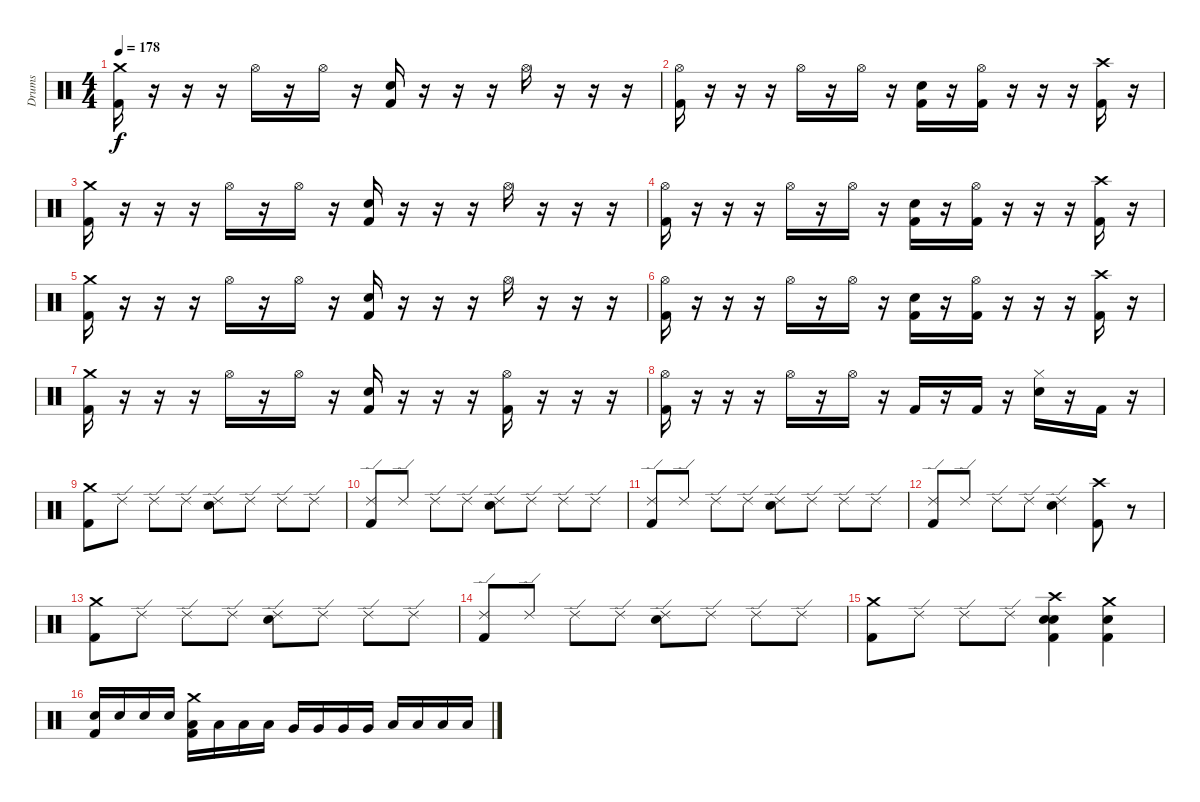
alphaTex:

\track ("Drums" "Drums") {instrument percussion}
\staff {score}
\articulation defaults
\ts (4 4)
\tempo 178
\clef neutral
\ks c
("Crash medium (hit)" "Kick (hit) 2").16{dy f} r.16 r.16 r.16 "Hi-Hat (open)".16 r.16 "Hi-Hat (open)".16 r.16 ("Electric Snare (hit)" "Kick (hit) 2").16 r.16 r.16 r.16 "Hi-Hat (open)".16 r.16 r.16 r.16 |
("Hi-Hat (open)" "Kick (hit) 2").16 r.16 r.16 r.16 "Hi-Hat (open)".16 r.16 "Hi-Hat (open)".16 r.16 ("Electric Snare (hit)" "Kick (hit) 2").16 r.16 ("Hi-Hat (open)" "Kick (hit) 2").16 r.16 r.16 r.16 ("Crash high (hit)" "Kick (hit) 2").16 r.16 |
("Crash medium (hit)" "Kick (hit) 2").16 r.16 r.16 r.16 "Hi-Hat (open)".16 r.16 "Hi-Hat (open)".16 r.16 ("Electric Snare (hit)" "Kick (hit) 2").16 r.16 r.16 r.16 "Hi-Hat (open)".16 r.16 r.16 r.16 |
("Hi-Hat (open)" "Kick (hit) 2").16 r.16 r.16 r.16 "Hi-Hat (open)".16 r.16 "Hi-Hat (open)".16 r.16 ("Electric Snare (hit)" "Kick (hit) 2").16 r.16 ("Hi-Hat (open)" "Kick (hit) 2").16 r.16 r.16 r.16 ("Crash high (hit)" "Kick (hit) 2").16 r.16 |
("Crash medium (hit)" "Kick (hit) 2").16 r.16 r.16 r.16 "Hi-Hat (open)".16 r.16 "Hi-Hat (open)".16 r.16 ("Electric Snare (hit)" "Kick (hit) 2").16 r.16 r.16 r.16 "Hi-Hat (open)".16 r.16 r.16 r.16 |
("Hi-Hat (open)" "Kick (hit) 2").16 r.16 r.16 r.16 "Hi-Hat (open)".16 r.16 "Hi-Hat (open)".16 r.16 ("Electric Snare (hit)" "Kick (hit) 2").16 r.16 ("Hi-Hat (open)" "Kick (hit) 2").16 r.16 r.16 r.16 ("Crash high (hit)" "Kick (hit) 2").16 r.16 |
("Crash medium (hit)" "Kick (hit) 2").16 r.16 r.16 r.16 "Hi-Hat (open)".16 r.16 "Hi-Hat (open)".16 r.16 ("Electric Snare (hit)" "Kick (hit) 2").16 r.16 r.16 r.16 ("Hi-Hat (open)" "Kick (hit) 2").16 r.16 r.16 r.16 |
("Hi-Hat (open)" "Kick (hit) 2").16 r.16 r.16 r.16 "Hi-Hat (open)".16 r.16 "Hi-Hat (open)".16 r.16 "Kick (hit) 2".16 r.16 "Kick (hit) 2".16 r.16 ("Hi-Hat (closed)" "Electric Snare (hit)").16 r.16 "Kick (hit) 2".16 r.16 |
("Crash medium (hit)" "Kick (hit) 2").8 "Ride (edge) 2".8 "Ride (edge) 2".8 "Ride (edge) 2".8 ("Ride (edge) 2" "Electric Snare (hit)").8 "Ride (edge) 2".8 "Ride (edge) 2".8 "Ride (edge) 2".8 |
("Ride (edge) 2" "Kick (hit) 2").8 "Ride (edge) 2".8 "Ride (edge) 2".8 "Ride (edge) 2".8 ("Ride (edge) 2" "Electric Snare (hit)").8 "Ride (edge) 2".8 "Ride (edge) 2".8 "Ride (edge) 2".8 |
("Ride (edge) 2" "Kick (hit) 2").8 "Ride (edge) 2".8 "Ride (edge) 2".8 "Ride (edge) 2".8 ("Ride (edge) 2" "Electric Snare (hit)").8 "Ride (edge) 2".8 "Ride (edge) 2".8 "Ride (edge) 2".8 |
("Ride (edge) 2" "Kick (hit) 2").8 "Ride (edge) 2".8 "Ride (edge) 2".8 "Ride (edge) 2".8 ("Ride (edge) 2" "Electric Snare (hit)").4 ("Crash high (hit)" "Kick (hit) 2").8 r.8 |
("Crash medium (hit)" "Kick (hit) 2").8 "Ride (edge) 2".8 "Ride (edge) 2".8 "Ride (edge) 2".8 ("Ride (edge) 2" "Electric Snare (hit)").8 "Ride (edge) 2".8 "Ride (edge) 2".8 "Ride (edge) 2".8 |
("Ride (edge) 2" "Kick (hit) 2").8 "Ride (edge) 2".8 "Ride (edge) 2".8 "Ride (edge) 2".8 ("Ride (edge) 2" "Electric Snare (hit)").8 "Ride (edge) 2".8 "Ride (edge) 2".8 "Ride (edge) 2".8 |
("Crash medium (hit)" "Kick (hit) 2").8 "Ride (edge) 2".8 "Ride (edge) 2".8 "Ride (edge) 2".8 ("Crash high (hit)" "Electric Snare (hit)" "Electric Snare (hit)" "Kick (hit) 2").4 ("Crash medium (hit)" "Electric Snare (hit)" "Kick (hit) 2").4 |
("Electric Snare (hit)" "Kick (hit) 2").16 "Electric Snare (hit)".16 "Electric Snare (hit)".16 "Electric Snare (hit)".16 ("Crash medium (hit)" "Low Tom (hit)" "Kick (hit) 2").16 "Low Tom (hit)".16 "Low Tom (hit)".16 "Low Tom (hit)".16 "Very Low Tom (hit)".16 "Very Low Tom (hit)".16 "Very Low Tom (hit)".16 "Very Low Tom (hit)".16 "Low Floor Tom (hit)".16 "Low Floor Tom (hit)".16 "Low Floor Tom (hit)".16 "Low Floor Tom (hit)".16
